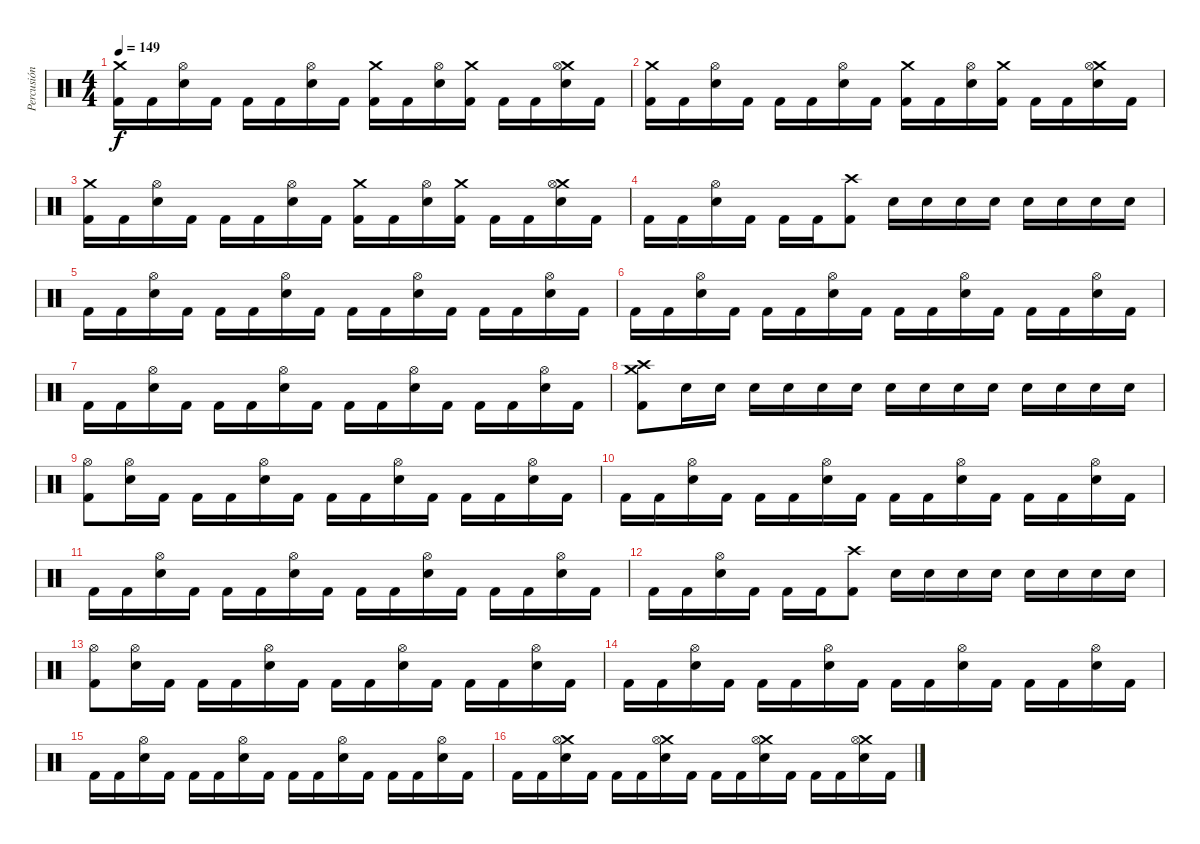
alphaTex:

\track ("Percusión" "Percusión") {instrument percussion}
\staff {score}
\articulation defaults
\ts (4 4)
\tempo 149
\clef neutral
\ks c
("Crash medium (hit)" "Kick (hit) 2").16{dy f} "Kick (hit) 2".16 ("Hi-Hat (open)" "Snare (hit) 2").16 "Kick (hit) 2".16 "Kick (hit) 2".16 "Kick (hit) 2".16 ("Hi-Hat (open)" "Snare (hit) 2").16 "Kick (hit) 2".16 ("Crash medium (hit)" "Kick (hit) 2").16 "Kick (hit) 2".16 ("Hi-Hat (open)" "Snare (hit) 2").16 ("Crash medium (hit)" "Kick (hit) 2").16 "Kick (hit) 2".16 "Kick (hit) 2".16 ("Crash medium (hit)" "Hi-Hat (open)" "Snare (hit) 2").16 "Kick (hit) 2".16 |
("Crash medium (hit)" "Kick (hit) 2").16 "Kick (hit) 2".16 ("Hi-Hat (open)" "Snare (hit) 2").16 "Kick (hit) 2".16 "Kick (hit) 2".16 "Kick (hit) 2".16 ("Hi-Hat (open)" "Snare (hit) 2").16 "Kick (hit) 2".16 ("Crash medium (hit)" "Kick (hit) 2").16 "Kick (hit) 2".16 ("Hi-Hat (open)" "Snare (hit) 2").16 ("Crash medium (hit)" "Kick (hit) 2").16 "Kick (hit) 2".16 "Kick (hit) 2".16 ("Crash medium (hit)" "Hi-Hat (open)" "Snare (hit) 2").16 "Kick (hit) 2".16 |
("Crash medium (hit)" "Kick (hit) 2").16 "Kick (hit) 2".16 ("Hi-Hat (open)" "Snare (hit) 2").16 "Kick (hit) 2".16 "Kick (hit) 2".16 "Kick (hit) 2".16 ("Hi-Hat (open)" "Snare (hit) 2").16 "Kick (hit) 2".16 ("Crash medium (hit)" "Kick (hit) 2").16 "Kick (hit) 2".16 ("Hi-Hat (open)" "Snare (hit) 2").16 ("Crash medium (hit)" "Kick (hit) 2").16 "Kick (hit) 2".16 "Kick (hit) 2".16 ("Crash medium (hit)" "Hi-Hat (open)" "Snare (hit) 2").16 "Kick (hit) 2".16 |
"Kick (hit) 2".16 "Kick (hit) 2".16 ("Hi-Hat (open)" "Snare (hit) 2").16 "Kick (hit) 2".16 "Kick (hit) 2".16 "Kick (hit) 2".16 ("Crash high (hit)" "Kick (hit) 2").8 "Snare (hit) 2".16 "Snare (hit) 2".16 "Snare (hit) 2".16 "Snare (hit) 2".16 "Snare (hit) 2".16 "Snare (hit) 2".16 "Snare (hit) 2".16 "Snare (hit) 2".16 |
"Kick (hit) 2".16 "Kick (hit) 2".16 ("Hi-Hat (open)" "Snare (hit) 2").16 "Kick (hit) 2".16 "Kick (hit) 2".16 "Kick (hit) 2".16 ("Hi-Hat (open)" "Snare (hit) 2").16 "Kick (hit) 2".16 "Kick (hit) 2".16 "Kick (hit) 2".16 ("Hi-Hat (open)" "Snare (hit) 2").16 "Kick (hit) 2".16 "Kick (hit) 2".16 "Kick (hit) 2".16 ("Hi-Hat (open)" "Snare (hit) 2").16 "Kick (hit) 2".16 |
"Kick (hit) 2".16 "Kick (hit) 2".16 ("Hi-Hat (open)" "Snare (hit) 2").16 "Kick (hit) 2".16 "Kick (hit) 2".16 "Kick (hit) 2".16 ("Hi-Hat (open)" "Snare (hit) 2").16 "Kick (hit) 2".16 "Kick (hit) 2".16 "Kick (hit) 2".16 ("Hi-Hat (open)" "Snare (hit) 2").16 "Kick (hit) 2".16 "Kick (hit) 2".16 "Kick (hit) 2".16 ("Hi-Hat (open)" "Snare (hit) 2").16 "Kick (hit) 2".16 |
"Kick (hit) 2".16 "Kick (hit) 2".16 ("Hi-Hat (open)" "Snare (hit) 2").16 "Kick (hit) 2".16 "Kick (hit) 2".16 "Kick (hit) 2".16 ("Hi-Hat (open)" "Snare (hit) 2").16 "Kick (hit) 2".16 "Kick (hit) 2".16 "Kick (hit) 2".16 ("Hi-Hat (open)" "Snare (hit) 2").16 "Kick (hit) 2".16 "Kick (hit) 2".16 "Kick (hit) 2".16 ("Hi-Hat (open)" "Snare (hit) 2").16 "Kick (hit) 2".16 |
("Crash high (hit)" "Crash medium (hit)" "Kick (hit) 2").8 "Snare (hit) 2".16 "Snare (hit) 2".16 "Snare (hit) 2".16 "Snare (hit) 2".16 "Snare (hit) 2".16 "Snare (hit) 2".16 "Snare (hit) 2".16 "Snare (hit) 2".16 "Snare (hit) 2".16 "Snare (hit) 2".16 "Snare (hit) 2".16 "Snare (hit) 2".16 "Snare (hit) 2".16 "Snare (hit) 2".16 |
("Hi-Hat (open)" "Kick (hit) 2").8 ("Hi-Hat (open)" "Snare (hit) 2").16 "Kick (hit) 2".16 "Kick (hit) 2".16 "Kick (hit) 2".16 ("Hi-Hat (open)" "Snare (hit) 2").16 "Kick (hit) 2".16 "Kick (hit) 2".16 "Kick (hit) 2".16 ("Hi-Hat (open)" "Snare (hit) 2").16 "Kick (hit) 2".16 "Kick (hit) 2".16 "Kick (hit) 2".16 ("Hi-Hat (open)" "Snare (hit) 2").16 "Kick (hit) 2".16 |
"Kick (hit) 2".16 "Kick (hit) 2".16 ("Hi-Hat (open)" "Snare (hit) 2").16 "Kick (hit) 2".16 "Kick (hit) 2".16 "Kick (hit) 2".16 ("Hi-Hat (open)" "Snare (hit) 2").16 "Kick (hit) 2".16 "Kick (hit) 2".16 "Kick (hit) 2".16 ("Hi-Hat (open)" "Snare (hit) 2").16 "Kick (hit) 2".16 "Kick (hit) 2".16 "Kick (hit) 2".16 ("Hi-Hat (open)" "Snare (hit) 2").16 "Kick (hit) 2".16 |
"Kick (hit) 2".16 "Kick (hit) 2".16 ("Hi-Hat (open)" "Snare (hit) 2").16 "Kick (hit) 2".16 "Kick (hit) 2".16 "Kick (hit) 2".16 ("Hi-Hat (open)" "Snare (hit) 2").16 "Kick (hit) 2".16 "Kick (hit) 2".16 "Kick (hit) 2".16 ("Hi-Hat (open)" "Snare (hit) 2").16 "Kick (hit) 2".16 "Kick (hit) 2".16 "Kick (hit) 2".16 ("Hi-Hat (open)" "Snare (hit) 2").16 "Kick (hit) 2".16 |
"Kick (hit) 2".16 "Kick (hit) 2".16 ("Hi-Hat (open)" "Snare (hit) 2").16 "Kick (hit) 2".16 "Kick (hit) 2".16 "Kick (hit) 2".16 ("Crash high (hit)" "Kick (hit) 2").8 "Snare (hit) 2".16 "Snare (hit) 2".16 "Snare (hit) 2".16 "Snare (hit) 2".16 "Snare (hit) 2".16 "Snare (hit) 2".16 "Snare (hit) 2".16 "Snare (hit) 2".16 |
("Hi-Hat (open)" "Kick (hit) 2").8 ("Hi-Hat (open)" "Snare (hit) 2").16 "Kick (hit) 2".16 "Kick (hit) 2".16 "Kick (hit) 2".16 ("Hi-Hat (open)" "Snare (hit) 2").16 "Kick (hit) 2".16 "Kick (hit) 2".16 "Kick (hit) 2".16 ("Hi-Hat (open)" "Snare (hit) 2").16 "Kick (hit) 2".16 "Kick (hit) 2".16 "Kick (hit) 2".16 ("Hi-Hat (open)" "Snare (hit) 2").16 "Kick (hit) 2".16 |
"Kick (hit) 2".16 "Kick (hit) 2".16 ("Hi-Hat (open)" "Snare (hit) 2").16 "Kick (hit) 2".16 "Kick (hit) 2".16 "Kick (hit) 2".16 ("Hi-Hat (open)" "Snare (hit) 2").16 "Kick (hit) 2".16 "Kick (hit) 2".16 "Kick (hit) 2".16 ("Hi-Hat (open)" "Snare (hit) 2").16 "Kick (hit) 2".16 "Kick (hit) 2".16 "Kick (hit) 2".16 ("Hi-Hat (open)" "Snare (hit) 2").16 "Kick (hit) 2".16 |
"Kick (hit) 2".16 "Kick (hit) 2".16 ("Hi-Hat (open)" "Snare (hit) 2").16 "Kick (hit) 2".16 "Kick (hit) 2".16 "Kick (hit) 2".16 ("Hi-Hat (open)" "Snare (hit) 2").16 "Kick (hit) 2".16 "Kick (hit) 2".16 "Kick (hit) 2".16 ("Hi-Hat (open)" "Snare (hit) 2").16 "Kick (hit) 2".16 "Kick (hit) 2".16 "Kick (hit) 2".16 ("Hi-Hat (open)" "Snare (hit) 2").16 "Kick (hit) 2".16 |
"Kick (hit) 2".16 "Kick (hit) 2".16 ("Crash medium (hit)" "Hi-Hat (open)" "Snare (hit) 2").16 "Kick (hit) 2".16 "Kick (hit) 2".16 "Kick (hit) 2".16 ("Crash medium (hit)" "Hi-Hat (open)" "Snare (hit) 2").16 "Kick (hit) 2".16 "Kick (hit) 2".16 "Kick (hit) 2".16 ("Crash medium (hit)" "Hi-Hat (open)" "Snare (hit) 2").16 "Kick (hit) 2".16 "Kick (hit) 2".16 "Kick (hit) 2".16 ("Crash medium (hit)" "Hi-Hat (open)" "Snare (hit) 2").16 "Kick (hit) 2".16
